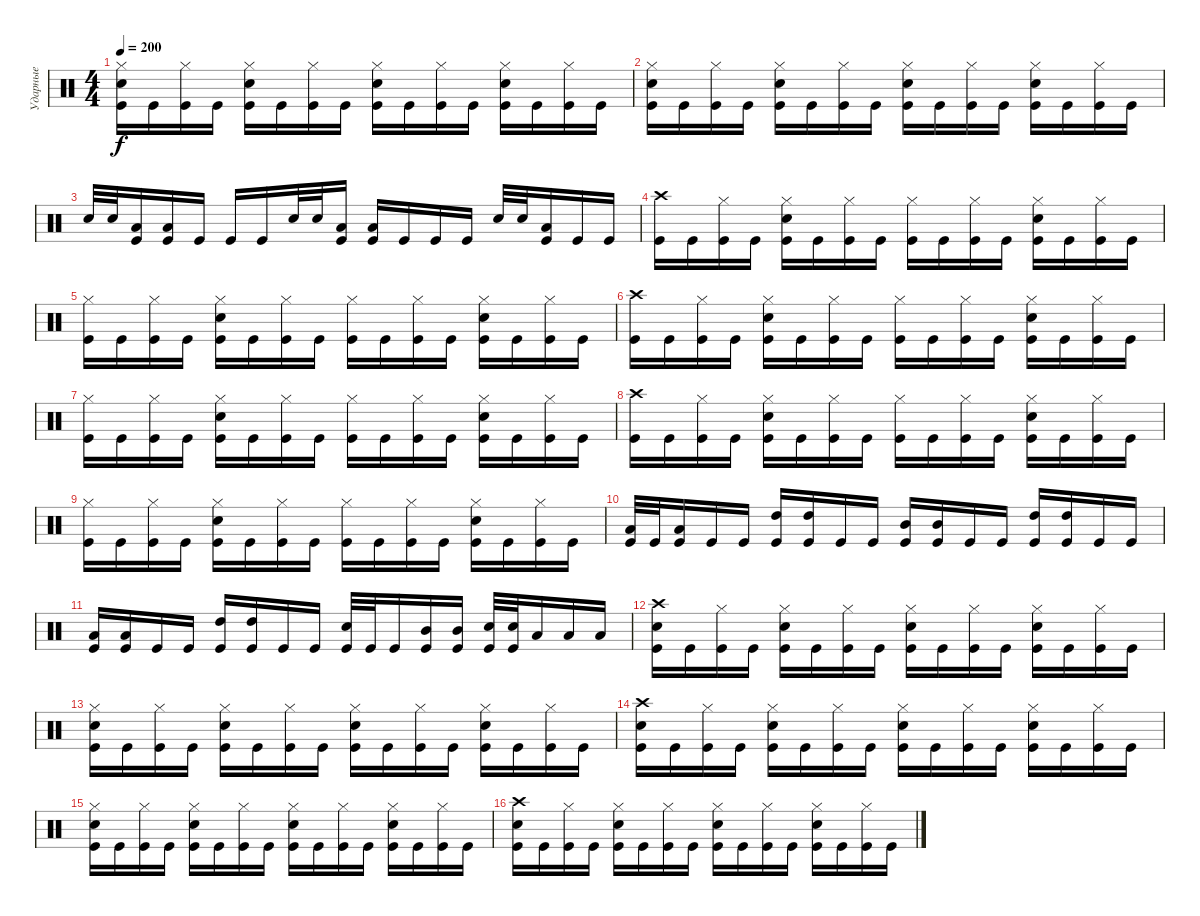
\track ("Ударные" "Ударные") {instrument percussion}
\staff {score}
\articulation defaults
\ts (4 4)
\tempo 200
\clef neutral
\ks c
("Hi-Hat (closed)" "Electric Snare (hit)" "Kick (hit)").16{dy f} "Kick (hit)".16 ("Hi-Hat (closed)" "Kick (hit)").16 "Kick (hit)".16 ("Hi-Hat (closed)" "Electric Snare (hit)" "Kick (hit)").16 "Kick (hit)".16 ("Hi-Hat (closed)" "Kick (hit)").16 "Kick (hit)".16 ("Hi-Hat (closed)" "Electric Snare (hit)" "Kick (hit)").16 "Kick (hit)".16 ("Hi-Hat (closed)" "Kick (hit)").16 "Kick (hit)".16 ("Hi-Hat (closed)" "Electric Snare (hit)" "Kick (hit)").16 "Kick (hit)".16 ("Hi-Hat (closed)" "Kick (hit)").16 "Kick (hit)".16 |
("Hi-Hat (closed)" "Electric Snare (hit)" "Kick (hit)").16 "Kick (hit)".16 ("Hi-Hat (closed)" "Kick (hit)").16 "Kick (hit)".16 ("Hi-Hat (closed)" "Electric Snare (hit)" "Kick (hit)").16 "Kick (hit)".16 ("Hi-Hat (closed)" "Kick (hit)").16 "Kick (hit)".16 ("Hi-Hat (closed)" "Electric Snare (hit)" "Kick (hit)").16 "Kick (hit)".16 ("Hi-Hat (closed)" "Kick (hit)").16 "Kick (hit)".16 ("Hi-Hat (closed)" "Electric Snare (hit)" "Kick (hit)").16 "Kick (hit)".16 ("Hi-Hat (closed)" "Kick (hit)").16 "Kick (hit)".16 |
"Electric Snare (hit)".32 "Electric Snare (hit)".32 ("Low Tom (hit)" "Kick (hit)").16 ("Low Tom (hit)" "Kick (hit)").16 "Kick (hit)".16 "Kick (hit)".16 "Kick (hit)".16 "Electric Snare (hit)".32 "Electric Snare (hit)".32 ("Low Tom (hit)" "Kick (hit)").16 ("Low Tom (hit)" "Kick (hit)").16 "Kick (hit)".16 "Kick (hit)".16 "Kick (hit)".16 "Electric Snare (hit)".32 "Electric Snare (hit)".32 ("Low Tom (hit)" "Kick (hit)").16 "Kick (hit)".16 "Kick (hit)".16 |
("Crash high (hit)" "Kick (hit)").16 "Kick (hit)".16 ("Hi-Hat (closed)" "Kick (hit)").16 "Kick (hit)".16 ("Hi-Hat (closed)" "Electric Snare (hit)" "Kick (hit)").16 "Kick (hit)".16 ("Hi-Hat (closed)" "Kick (hit)").16 "Kick (hit)".16 ("Hi-Hat (closed)" "Kick (hit)").16 "Kick (hit)".16 ("Hi-Hat (closed)" "Kick (hit)").16 "Kick (hit)".16 ("Hi-Hat (closed)" "Electric Snare (hit)" "Kick (hit)").16 "Kick (hit)".16 ("Hi-Hat (closed)" "Kick (hit)").16 "Kick (hit)".16 |
("Hi-Hat (closed)" "Kick (hit)").16 "Kick (hit)".16 ("Hi-Hat (closed)" "Kick (hit)").16 "Kick (hit)".16 ("Hi-Hat (closed)" "Electric Snare (hit)" "Kick (hit)").16 "Kick (hit)".16 ("Hi-Hat (closed)" "Kick (hit)").16 "Kick (hit)".16 ("Hi-Hat (closed)" "Kick (hit)").16 "Kick (hit)".16 ("Hi-Hat (closed)" "Kick (hit)").16 "Kick (hit)".16 ("Hi-Hat (closed)" "Electric Snare (hit)" "Kick (hit)").16 "Kick (hit)".16 ("Hi-Hat (closed)" "Kick (hit)").16 "Kick (hit)".16 |
("Crash high (hit)" "Kick (hit)").16 "Kick (hit)".16 ("Hi-Hat (closed)" "Kick (hit)").16 "Kick (hit)".16 ("Hi-Hat (closed)" "Electric Snare (hit)" "Kick (hit)").16 "Kick (hit)".16 ("Hi-Hat (closed)" "Kick (hit)").16 "Kick (hit)".16 ("Hi-Hat (closed)" "Kick (hit)").16 "Kick (hit)".16 ("Hi-Hat (closed)" "Kick (hit)").16 "Kick (hit)".16 ("Hi-Hat (closed)" "Electric Snare (hit)" "Kick (hit)").16 "Kick (hit)".16 ("Hi-Hat (closed)" "Kick (hit)").16 "Kick (hit)".16 |
("Hi-Hat (closed)" "Kick (hit)").16 "Kick (hit)".16 ("Hi-Hat (closed)" "Kick (hit)").16 "Kick (hit)".16 ("Hi-Hat (closed)" "Electric Snare (hit)" "Kick (hit)").16 "Kick (hit)".16 ("Hi-Hat (closed)" "Kick (hit)").16 "Kick (hit)".16 ("Hi-Hat (closed)" "Kick (hit)").16 "Kick (hit)".16 ("Hi-Hat (closed)" "Kick (hit)").16 "Kick (hit)".16 ("Hi-Hat (closed)" "Electric Snare (hit)" "Kick (hit)").16 "Kick (hit)".16 ("Hi-Hat (closed)" "Kick (hit)").16 "Kick (hit)".16 |
("Crash high (hit)" "Kick (hit)").16 "Kick (hit)".16 ("Hi-Hat (closed)" "Kick (hit)").16 "Kick (hit)".16 ("Hi-Hat (closed)" "Electric Snare (hit)" "Kick (hit)").16 "Kick (hit)".16 ("Hi-Hat (closed)" "Kick (hit)").16 "Kick (hit)".16 ("Hi-Hat (closed)" "Kick (hit)").16 "Kick (hit)".16 ("Hi-Hat (closed)" "Kick (hit)").16 "Kick (hit)".16 ("Hi-Hat (closed)" "Electric Snare (hit)" "Kick (hit)").16 "Kick (hit)".16 ("Hi-Hat (closed)" "Kick (hit)").16 "Kick (hit)".16 |
("Hi-Hat (closed)" "Kick (hit)").16 "Kick (hit)".16 ("Hi-Hat (closed)" "Kick (hit)").16 "Kick (hit)".16 ("Hi-Hat (closed)" "Electric Snare (hit)" "Kick (hit)").16 "Kick (hit)".16 ("Hi-Hat (closed)" "Kick (hit)").16 "Kick (hit)".16 ("Hi-Hat (closed)" "Kick (hit)").16 "Kick (hit)".16 ("Hi-Hat (closed)" "Kick (hit)").16 "Kick (hit)".16 ("Hi-Hat (closed)" "Electric Snare (hit)" "Kick (hit)").16 "Kick (hit)".16 ("Hi-Hat (closed)" "Kick (hit)").16 "Kick (hit)".16 |
("Low Tom (hit)" "Kick (hit)").32 "Kick (hit)".32 ("Low Tom (hit)" "Kick (hit)").16 "Kick (hit)".16 "Kick (hit)".16 ("High Tom (hit)" "Kick (hit)").16 ("High Tom (hit)" "Kick (hit)").16 "Kick (hit)".16 "Kick (hit)".16 ("Mid Tom (hit)" "Kick (hit)").16 ("Mid Tom (hit)" "Kick (hit)").16 "Kick (hit)".16 "Kick (hit)".16 ("High Tom (hit)" "Kick (hit)").16 ("High Tom (hit)" "Kick (hit)").16 "Kick (hit)".16 "Kick (hit)".16 |
("Low Tom (hit)" "Kick (hit)").16 ("Low Tom (hit)" "Kick (hit)").16 "Kick (hit)".16 "Kick (hit)".16 ("High Tom (hit)" "Kick (hit)").16 ("High Tom (hit)" "Kick (hit)").16 "Kick (hit)".16 "Kick (hit)".16 ("Electric Snare (hit)" "Kick (hit)").32 "Kick (hit)".32 "Kick (hit)".16 ("Mid Tom (hit)" "Kick (hit)").16 ("Mid Tom (hit)" "Kick (hit)").16 ("Electric Snare (hit)" "Kick (hit)").32 ("Electric Snare (hit)" "Kick (hit)").32 "Low Tom (hit)".16 "Low Tom (hit)".16 "Low Tom (hit)".16 |
("Crash high (hit)" "Electric Snare (hit)" "Kick (hit)").16 "Kick (hit)".16 ("Hi-Hat (closed)" "Kick (hit)").16 "Kick (hit)".16 ("Hi-Hat (closed)" "Electric Snare (hit)" "Kick (hit)").16 "Kick (hit)".16 ("Hi-Hat (closed)" "Kick (hit)").16 "Kick (hit)".16 ("Hi-Hat (closed)" "Electric Snare (hit)" "Kick (hit)").16 "Kick (hit)".16 ("Hi-Hat (closed)" "Kick (hit)").16 "Kick (hit)".16 ("Hi-Hat (closed)" "Electric Snare (hit)" "Kick (hit)").16 "Kick (hit)".16 ("Hi-Hat (closed)" "Kick (hit)").16 "Kick (hit)".16 |
("Hi-Hat (closed)" "Electric Snare (hit)" "Kick (hit)").16 "Kick (hit)".16 ("Hi-Hat (closed)" "Kick (hit)").16 "Kick (hit)".16 ("Hi-Hat (closed)" "Electric Snare (hit)" "Kick (hit)").16 "Kick (hit)".16 ("Hi-Hat (closed)" "Kick (hit)").16 "Kick (hit)".16 ("Hi-Hat (closed)" "Electric Snare (hit)" "Kick (hit)").16 "Kick (hit)".16 ("Hi-Hat (closed)" "Kick (hit)").16 "Kick (hit)".16 ("Hi-Hat (closed)" "Electric Snare (hit)" "Kick (hit)").16 "Kick (hit)".16 ("Hi-Hat (closed)" "Kick (hit)").16 "Kick (hit)".16 |
("Crash high (hit)" "Electric Snare (hit)" "Kick (hit)").16 "Kick (hit)".16 ("Hi-Hat (closed)" "Kick (hit)").16 "Kick (hit)".16 ("Hi-Hat (closed)" "Electric Snare (hit)" "Kick (hit)").16 "Kick (hit)".16 ("Hi-Hat (closed)" "Kick (hit)").16 "Kick (hit)".16 ("Hi-Hat (closed)" "Electric Snare (hit)" "Kick (hit)").16 "Kick (hit)".16 ("Hi-Hat (closed)" "Kick (hit)").16 "Kick (hit)".16 ("Hi-Hat (closed)" "Electric Snare (hit)" "Kick (hit)").16 "Kick (hit)".16 ("Hi-Hat (closed)" "Kick (hit)").16 "Kick (hit)".16 |
("Hi-Hat (closed)" "Electric Snare (hit)" "Kick (hit)").16 "Kick (hit)".16 ("Hi-Hat (closed)" "Kick (hit)").16 "Kick (hit)".16 ("Hi-Hat (closed)" "Electric Snare (hit)" "Kick (hit)").16 "Kick (hit)".16 ("Hi-Hat (closed)" "Kick (hit)").16 "Kick (hit)".16 ("Hi-Hat (closed)" "Electric Snare (hit)" "Kick (hit)").16 "Kick (hit)".16 ("Hi-Hat (closed)" "Kick (hit)").16 "Kick (hit)".16 ("Hi-Hat (closed)" "Electric Snare (hit)" "Kick (hit)").16 "Kick (hit)".16 ("Hi-Hat (closed)" "Kick (hit)").16 "Kick (hit)".16 |
("Crash high (hit)" "Electric Snare (hit)" "Kick (hit)").16 "Kick (hit)".16 ("Hi-Hat (closed)" "Kick (hit)").16 "Kick (hit)".16 ("Hi-Hat (closed)" "Electric Snare (hit)" "Kick (hit)").16 "Kick (hit)".16 ("Hi-Hat (closed)" "Kick (hit)").16 "Kick (hit)".16 ("Hi-Hat (closed)" "Electric Snare (hit)" "Kick (hit)").16 "Kick (hit)".16 ("Hi-Hat (closed)" "Kick (hit)").16 "Kick (hit)".16 ("Hi-Hat (closed)" "Electric Snare (hit)" "Kick (hit)").16 "Kick (hit)".16 ("Hi-Hat (closed)" "Kick (hit)").16 "Kick (hit)".16
